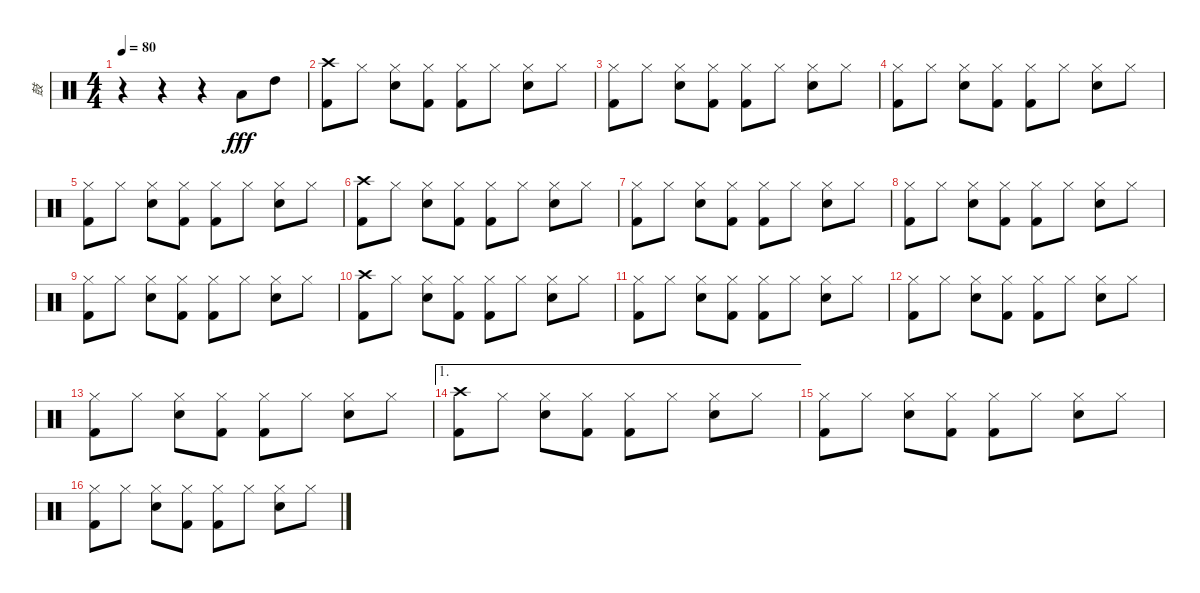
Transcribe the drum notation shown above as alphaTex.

\track ("鼓" "鼓") {instrument percussion}
\staff {score}
\articulation defaults
\ts (4 4)
\tempo 80
\clef neutral
\ks c
r.4{dy fff} r.4 r.4 "Low Tom (hit)".8 "High Tom (hit)".8 |
("Crash high (hit)" "Kick (hit) 2").8 "Hi-Hat (closed)".8 ("Hi-Hat (closed)" "Snare (hit) 2").8 ("Hi-Hat (closed)" "Kick (hit) 2").8 ("Hi-Hat (closed)" "Kick (hit) 2").8 "Hi-Hat (closed)".8 ("Hi-Hat (closed)" "Snare (hit) 2").8 "Hi-Hat (closed)".8 |
("Hi-Hat (closed)" "Kick (hit) 2").8 "Hi-Hat (closed)".8 ("Hi-Hat (closed)" "Snare (hit) 2").8 ("Hi-Hat (closed)" "Kick (hit) 2").8 ("Hi-Hat (closed)" "Kick (hit) 2").8 "Hi-Hat (closed)".8 ("Hi-Hat (closed)" "Snare (hit) 2").8 "Hi-Hat (closed)".8 |
("Hi-Hat (closed)" "Kick (hit) 2").8 "Hi-Hat (closed)".8 ("Hi-Hat (closed)" "Snare (hit) 2").8 ("Hi-Hat (closed)" "Kick (hit) 2").8 ("Hi-Hat (closed)" "Kick (hit) 2").8 "Hi-Hat (closed)".8 ("Hi-Hat (closed)" "Snare (hit) 2").8 "Hi-Hat (closed)".8 |
("Hi-Hat (closed)" "Kick (hit) 2").8 "Hi-Hat (closed)".8 ("Hi-Hat (closed)" "Snare (hit) 2").8 ("Hi-Hat (closed)" "Kick (hit) 2").8 ("Hi-Hat (closed)" "Kick (hit) 2").8 "Hi-Hat (closed)".8 ("Hi-Hat (closed)" "Snare (hit) 2").8 "Hi-Hat (closed)".8 |
("Crash high (hit)" "Kick (hit) 2").8 "Hi-Hat (closed)".8 ("Hi-Hat (closed)" "Snare (hit) 2").8 ("Hi-Hat (closed)" "Kick (hit) 2").8 ("Hi-Hat (closed)" "Kick (hit) 2").8 "Hi-Hat (closed)".8 ("Hi-Hat (closed)" "Snare (hit) 2").8 "Hi-Hat (closed)".8 |
("Hi-Hat (closed)" "Kick (hit) 2").8 "Hi-Hat (closed)".8 ("Hi-Hat (closed)" "Snare (hit) 2").8 ("Hi-Hat (closed)" "Kick (hit) 2").8 ("Hi-Hat (closed)" "Kick (hit) 2").8 "Hi-Hat (closed)".8 ("Hi-Hat (closed)" "Snare (hit) 2").8 "Hi-Hat (closed)".8 |
("Hi-Hat (closed)" "Kick (hit) 2").8 "Hi-Hat (closed)".8 ("Hi-Hat (closed)" "Snare (hit) 2").8 ("Hi-Hat (closed)" "Kick (hit) 2").8 ("Hi-Hat (closed)" "Kick (hit) 2").8 "Hi-Hat (closed)".8 ("Hi-Hat (closed)" "Snare (hit) 2").8 "Hi-Hat (closed)".8 |
("Hi-Hat (closed)" "Kick (hit) 2").8 "Hi-Hat (closed)".8 ("Hi-Hat (closed)" "Snare (hit) 2").8 ("Hi-Hat (closed)" "Kick (hit) 2").8 ("Hi-Hat (closed)" "Kick (hit) 2").8 "Hi-Hat (closed)".8 ("Hi-Hat (closed)" "Snare (hit) 2").8 "Hi-Hat (closed)".8 |
("Crash high (hit)" "Kick (hit) 2").8 "Hi-Hat (closed)".8 ("Hi-Hat (closed)" "Snare (hit) 2").8 ("Hi-Hat (closed)" "Kick (hit) 2").8 ("Hi-Hat (closed)" "Kick (hit) 2").8 "Hi-Hat (closed)".8 ("Hi-Hat (closed)" "Snare (hit) 2").8 "Hi-Hat (closed)".8 |
("Hi-Hat (closed)" "Kick (hit) 2").8 "Hi-Hat (closed)".8 ("Hi-Hat (closed)" "Snare (hit) 2").8 ("Hi-Hat (closed)" "Kick (hit) 2").8 ("Hi-Hat (closed)" "Kick (hit) 2").8 "Hi-Hat (closed)".8 ("Hi-Hat (closed)" "Snare (hit) 2").8 "Hi-Hat (closed)".8 |
("Hi-Hat (closed)" "Kick (hit) 2").8 "Hi-Hat (closed)".8 ("Hi-Hat (closed)" "Snare (hit) 2").8 ("Hi-Hat (closed)" "Kick (hit) 2").8 ("Hi-Hat (closed)" "Kick (hit) 2").8 "Hi-Hat (closed)".8 ("Hi-Hat (closed)" "Snare (hit) 2").8 "Hi-Hat (closed)".8 |
("Hi-Hat (closed)" "Kick (hit) 2").8 "Hi-Hat (closed)".8 ("Hi-Hat (closed)" "Snare (hit) 2").8 ("Hi-Hat (closed)" "Kick (hit) 2").8 ("Hi-Hat (closed)" "Kick (hit) 2").8 "Hi-Hat (closed)".8 ("Hi-Hat (closed)" "Snare (hit) 2").8 "Hi-Hat (closed)".8 |
\ae 1
("Crash high (hit)" "Kick (hit) 2").8 "Hi-Hat (closed)".8 ("Hi-Hat (closed)" "Snare (hit) 2").8 ("Hi-Hat (closed)" "Kick (hit) 2").8 ("Hi-Hat (closed)" "Kick (hit) 2").8 "Hi-Hat (closed)".8 ("Hi-Hat (closed)" "Snare (hit) 2").8 "Hi-Hat (closed)".8 |
("Hi-Hat (closed)" "Kick (hit) 2").8 "Hi-Hat (closed)".8 ("Hi-Hat (closed)" "Snare (hit) 2").8 ("Hi-Hat (closed)" "Kick (hit) 2").8 ("Hi-Hat (closed)" "Kick (hit) 2").8 "Hi-Hat (closed)".8 ("Hi-Hat (closed)" "Snare (hit) 2").8 "Hi-Hat (closed)".8 |
("Hi-Hat (closed)" "Kick (hit) 2").8 "Hi-Hat (closed)".8 ("Hi-Hat (closed)" "Snare (hit) 2").8 ("Hi-Hat (closed)" "Kick (hit) 2").8 ("Hi-Hat (closed)" "Kick (hit) 2").8 "Hi-Hat (closed)".8 ("Hi-Hat (closed)" "Snare (hit) 2").8 "Hi-Hat (closed)".8
